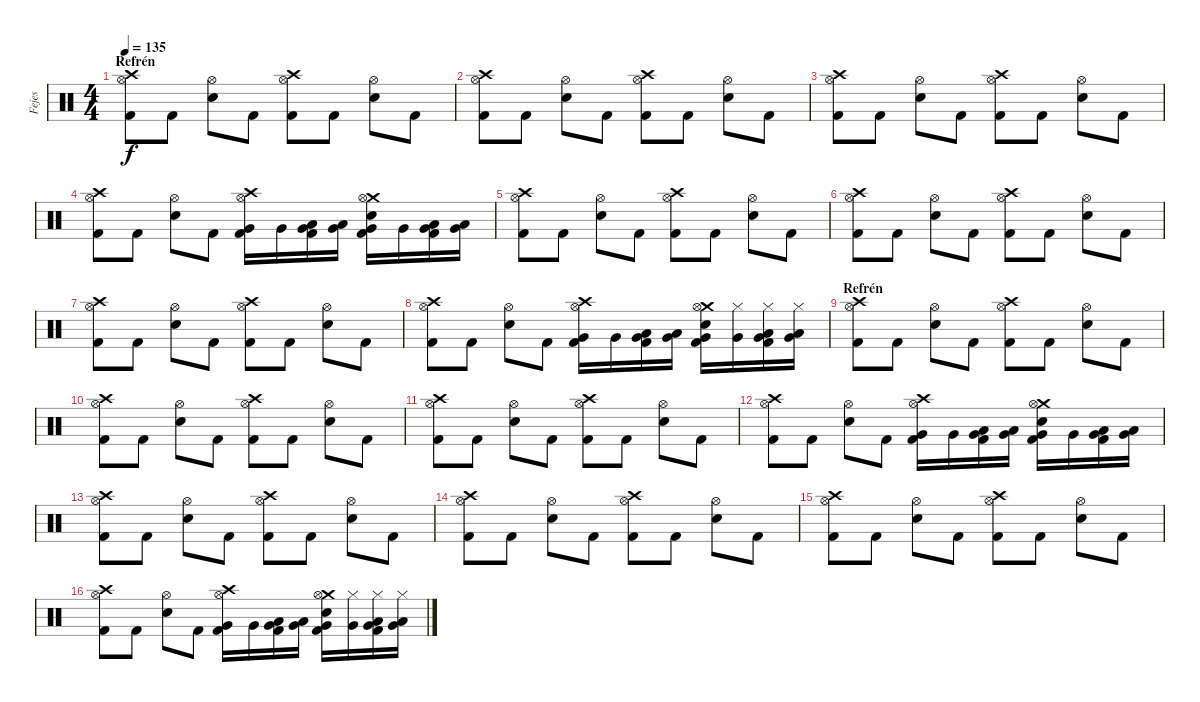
\track ("Fejes" "Fejes") {instrument percussion}
\staff {score}
\articulation defaults
\ts (4 4)
\section ("" "Refrén")
\tempo 135
\clef neutral
\ks c
("Crash high (hit)" "Hi-Hat (open)" "Kick (hit) 2").8{dy f} "Kick (hit) 2".8 ("Hi-Hat (open)" "Electric Snare (hit)").8 "Kick (hit) 2".8 ("Crash high (hit)" "Hi-Hat (open)" "Kick (hit) 2").8 "Kick (hit) 2".8 ("Hi-Hat (open)" "Electric Snare (hit)").8 "Kick (hit) 2".8 |
("Crash high (hit)" "Hi-Hat (open)" "Kick (hit) 2").8 "Kick (hit) 2".8 ("Hi-Hat (open)" "Electric Snare (hit)").8 "Kick (hit) 2".8 ("Crash high (hit)" "Hi-Hat (open)" "Kick (hit) 2").8 "Kick (hit) 2".8 ("Hi-Hat (open)" "Electric Snare (hit)").8 "Kick (hit) 2".8 |
("Crash high (hit)" "Hi-Hat (open)" "Kick (hit) 2").8 "Kick (hit) 2".8 ("Hi-Hat (open)" "Electric Snare (hit)").8 "Kick (hit) 2".8 ("Crash high (hit)" "Hi-Hat (open)" "Kick (hit) 2").8 "Kick (hit) 2".8 ("Hi-Hat (open)" "Electric Snare (hit)").8 "Kick (hit) 2".8 |
("Crash high (hit)" "Hi-Hat (open)" "Kick (hit) 2").8 "Kick (hit) 2".8 ("Hi-Hat (open)" "Electric Snare (hit)").8 "Kick (hit) 2".8 ("Crash high (hit)" "Hi-Hat (open)" "Very Low Tom (hit)" "Kick (hit) 2").16 "Very Low Tom (hit)".16 ("Very Low Tom (hit)" "Low Tom (hit)" "Kick (hit) 2").16 ("Very Low Tom (hit)" "Low Tom (hit)").16 ("Crash medium (hit)" "Hi-Hat (open)" "Electric Snare (hit)" "Very Low Tom (hit)" "Kick (hit) 2").16 "Very Low Tom (hit)".16 ("Very Low Tom (hit)" "Low Tom (hit)" "Kick (hit) 2").16 ("Very Low Tom (hit)" "Low Tom (hit)").16 |
("Crash high (hit)" "Hi-Hat (open)" "Kick (hit) 2").8 "Kick (hit) 2".8 ("Hi-Hat (open)" "Electric Snare (hit)").8 "Kick (hit) 2".8 ("Crash high (hit)" "Hi-Hat (open)" "Kick (hit) 2").8 "Kick (hit) 2".8 ("Hi-Hat (open)" "Electric Snare (hit)").8 "Kick (hit) 2".8 |
("Crash high (hit)" "Hi-Hat (open)" "Kick (hit) 2").8 "Kick (hit) 2".8 ("Hi-Hat (open)" "Electric Snare (hit)").8 "Kick (hit) 2".8 ("Crash high (hit)" "Hi-Hat (open)" "Kick (hit) 2").8 "Kick (hit) 2".8 ("Hi-Hat (open)" "Electric Snare (hit)").8 "Kick (hit) 2".8 |
("Crash high (hit)" "Hi-Hat (open)" "Kick (hit) 2").8 "Kick (hit) 2".8 ("Hi-Hat (open)" "Electric Snare (hit)").8 "Kick (hit) 2".8 ("Crash high (hit)" "Hi-Hat (open)" "Kick (hit) 2").8 "Kick (hit) 2".8 ("Hi-Hat (open)" "Electric Snare (hit)").8 "Kick (hit) 2".8 |
("Crash high (hit)" "Hi-Hat (open)" "Kick (hit) 2").8 "Kick (hit) 2".8 ("Hi-Hat (open)" "Electric Snare (hit)").8 "Kick (hit) 2".8 ("Crash high (hit)" "Hi-Hat (open)" "Very Low Tom (hit)" "Kick (hit) 2").16 "Very Low Tom (hit)".16 ("Very Low Tom (hit)" "Low Tom (hit)" "Kick (hit) 2").16 ("Very Low Tom (hit)" "Low Tom (hit)").16 ("Crash medium (hit)" "Hi-Hat (open)" "Electric Snare (hit)" "Very Low Tom (hit)" "Kick (hit) 2").16 ("Hi-Hat (closed)" "Very Low Tom (hit)").16 ("Hi-Hat (closed)" "Very Low Tom (hit)" "Low Tom (hit)" "Kick (hit) 2").16 ("Hi-Hat (closed)" "Very Low Tom (hit)" "Low Tom (hit)").16 |
\section ("" "Refrén")
("Crash high (hit)" "Hi-Hat (open)" "Kick (hit) 2").8 "Kick (hit) 2".8 ("Hi-Hat (open)" "Electric Snare (hit)").8 "Kick (hit) 2".8 ("Crash high (hit)" "Hi-Hat (open)" "Kick (hit) 2").8 "Kick (hit) 2".8 ("Hi-Hat (open)" "Electric Snare (hit)").8 "Kick (hit) 2".8 |
("Crash high (hit)" "Hi-Hat (open)" "Kick (hit) 2").8 "Kick (hit) 2".8 ("Hi-Hat (open)" "Electric Snare (hit)").8 "Kick (hit) 2".8 ("Crash high (hit)" "Hi-Hat (open)" "Kick (hit) 2").8 "Kick (hit) 2".8 ("Hi-Hat (open)" "Electric Snare (hit)").8 "Kick (hit) 2".8 |
("Crash high (hit)" "Hi-Hat (open)" "Kick (hit) 2").8 "Kick (hit) 2".8 ("Hi-Hat (open)" "Electric Snare (hit)").8 "Kick (hit) 2".8 ("Crash high (hit)" "Hi-Hat (open)" "Kick (hit) 2").8 "Kick (hit) 2".8 ("Hi-Hat (open)" "Electric Snare (hit)").8 "Kick (hit) 2".8 |
("Crash high (hit)" "Hi-Hat (open)" "Kick (hit) 2").8 "Kick (hit) 2".8 ("Hi-Hat (open)" "Electric Snare (hit)").8 "Kick (hit) 2".8 ("Crash high (hit)" "Hi-Hat (open)" "Very Low Tom (hit)" "Kick (hit) 2").16 "Very Low Tom (hit)".16 ("Very Low Tom (hit)" "Low Tom (hit)" "Kick (hit) 2").16 ("Very Low Tom (hit)" "Low Tom (hit)").16 ("Crash medium (hit)" "Hi-Hat (open)" "Electric Snare (hit)" "Very Low Tom (hit)" "Kick (hit) 2").16 "Very Low Tom (hit)".16 ("Very Low Tom (hit)" "Low Tom (hit)" "Kick (hit) 2").16 ("Very Low Tom (hit)" "Low Tom (hit)").16 |
("Crash high (hit)" "Hi-Hat (open)" "Kick (hit) 2").8 "Kick (hit) 2".8 ("Hi-Hat (open)" "Electric Snare (hit)").8 "Kick (hit) 2".8 ("Crash high (hit)" "Hi-Hat (open)" "Kick (hit) 2").8 "Kick (hit) 2".8 ("Hi-Hat (open)" "Electric Snare (hit)").8 "Kick (hit) 2".8 |
("Crash high (hit)" "Hi-Hat (open)" "Kick (hit) 2").8 "Kick (hit) 2".8 ("Hi-Hat (open)" "Electric Snare (hit)").8 "Kick (hit) 2".8 ("Crash high (hit)" "Hi-Hat (open)" "Kick (hit) 2").8 "Kick (hit) 2".8 ("Hi-Hat (open)" "Electric Snare (hit)").8 "Kick (hit) 2".8 |
("Crash high (hit)" "Hi-Hat (open)" "Kick (hit) 2").8 "Kick (hit) 2".8 ("Hi-Hat (open)" "Electric Snare (hit)").8 "Kick (hit) 2".8 ("Crash high (hit)" "Hi-Hat (open)" "Kick (hit) 2").8 "Kick (hit) 2".8 ("Hi-Hat (open)" "Electric Snare (hit)").8 "Kick (hit) 2".8 |
("Crash high (hit)" "Hi-Hat (open)" "Kick (hit) 2").8 "Kick (hit) 2".8 ("Hi-Hat (open)" "Electric Snare (hit)").8 "Kick (hit) 2".8 ("Crash high (hit)" "Hi-Hat (open)" "Very Low Tom (hit)" "Kick (hit) 2").16 "Very Low Tom (hit)".16 ("Very Low Tom (hit)" "Low Tom (hit)" "Kick (hit) 2").16 ("Very Low Tom (hit)" "Low Tom (hit)").16 ("Crash medium (hit)" "Hi-Hat (open)" "Electric Snare (hit)" "Very Low Tom (hit)" "Kick (hit) 2").16 ("Hi-Hat (closed)" "Very Low Tom (hit)").16 ("Hi-Hat (closed)" "Very Low Tom (hit)" "Low Tom (hit)" "Kick (hit) 2").16 ("Hi-Hat (closed)" "Very Low Tom (hit)" "Low Tom (hit)").16
